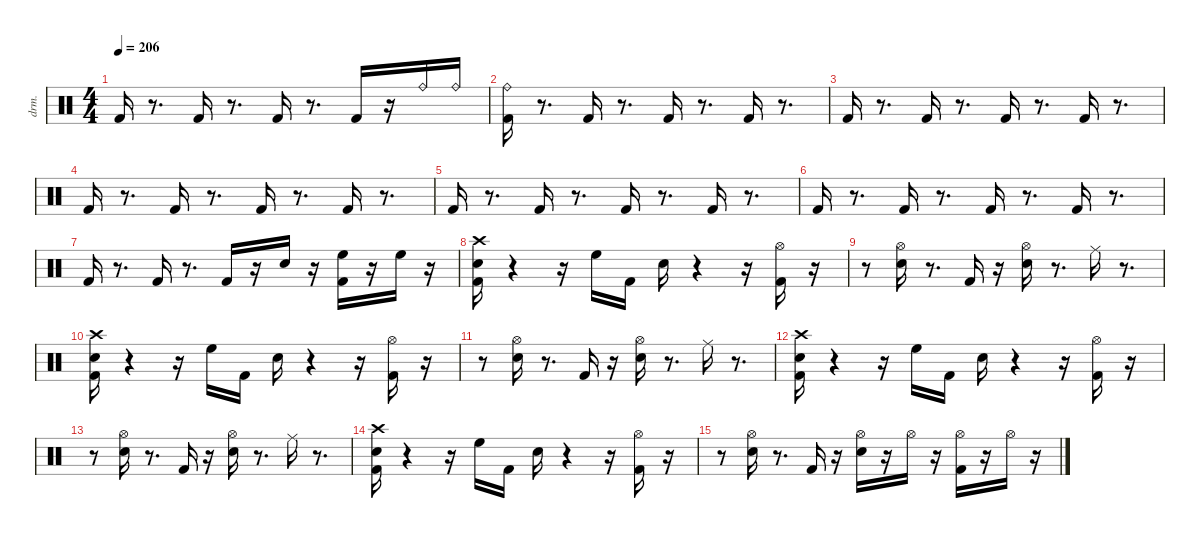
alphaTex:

\defaultSystemsLayout 4
\hideDynamics
\bracketExtendMode nobrackets
\otherSystemsTrackNameOrientation horizontal
\track ("EZdrummer 3" "drm.") {instrument percussion}
\staff {score}
\articulation defaults
\ts (4 4)
\tempo 206
\clef neutral
\ks aminor "Kick (hit) 2".16{dy ff beam Up}
r.8{d beam Up} "Kick (hit) 2".16{dy mp beam Up} r.8{d beam Up} "Kick (hit) 2".16{dy f beam Up} r.8{d beam Up} "Kick (hit) 2".16{dy mf beam Up} r.16{beam Up} "Ride (bell)".16{beam Down} "Ride (bell)".16{dy mp beam Down} |
("Kick (hit) 2" "Ride (bell)").16{dy ff beam Down} r.8{d beam Down} "Kick (hit) 2".16{dy mp beam Up} r.8{d beam Up} "Kick (hit) 2".16{dy f beam Up} r.8{d beam Up} "Kick (hit) 2".16{dy mf beam Up} r.8{d beam Up} |
"Kick (hit) 2".16{dy ff beam Up} r.8{d beam Up} "Kick (hit) 2".16{dy mp beam Up} r.8{d beam Up} "Kick (hit) 2".16{dy f beam Up} r.8{d beam Up} "Kick (hit) 2".16{dy mf beam Up} r.8{d beam Up} |
"Kick (hit) 2".16{dy ff beam Up} r.8{d beam Up} "Kick (hit) 2".16{dy mp beam Up} r.8{d beam Up} "Kick (hit) 2".16{dy f beam Up} r.8{d beam Up} "Kick (hit) 2".16{dy mf beam Up} r.8{d beam Up} |
"Kick (hit) 2".16{dy ff beam Up} r.8{d beam Up} "Kick (hit) 2".16{dy mp beam Up} r.8{d beam Up} "Kick (hit) 2".16{dy f beam Up} r.8{d beam Up} "Kick (hit) 2".16{dy mf beam Up} r.8{d beam Up} |
"Kick (hit) 2".16{dy ff beam Up} r.8{d beam Up} "Kick (hit) 2".16{dy mp beam Up} r.8{d beam Up} "Kick (hit) 2".16{dy f beam Up} r.8{d beam Up} "Kick (hit) 2".16{dy mf beam Up} r.8{d beam Up} |
"Kick (hit) 2".16{dy ff beam Up} r.8{d beam Up} "Kick (hit) 2".16{dy mp beam Up} r.8{d beam Up} "Kick (hit) 2".16{dy f beam Up} r.16{beam Up} "Snare (hit) 2".16{dy ff beam Down} r.16{beam Down} ("Kick (hit) 2" "High Floor Tom (hit)").16{dy mf beam Down} r.16{beam Down} "High Floor Tom (hit)".16{dy pp beam Down} r.16{beam Down} |
("Kick (hit) 2" "Snare (hit) 2" "Crash high (hit)"{acc #}).16{dy fff beam Down} r.4{beam Down} r.16{beam Down} "High Floor Tom (hit)".16{dy f beam Down} "Kick (hit) 2".16{dy ff beam Down} "Snare (hit) 2".16{dy fff beam Down} r.4{beam Down} r.16{beam Down} ("Kick (hit) 2" "Hi-Hat (open)"{acc #}).16{dy ff beam Down} r.16{beam Down} |
r.8{beam Down} ("Snare (hit) 2" "Hi-Hat (open)"{acc #}).16{beam Down} r.8{d beam Down} "Kick (hit) 2".16{beam Up} r.16{beam Up} ("Snare (hit) 2" "Hi-Hat (open)"{acc #}).16{beam Down} r.8{d beam Down} "Ride (middle)"{acc #}.16{beam Down} r.8{d beam Down} |
("Crash high (hit)"{acc #} "Kick (hit) 2" "Snare (hit) 2").16{dy fff beam Down} r.4{beam Down} r.16{beam Down} "High Floor Tom (hit)".16{dy f beam Down} "Kick (hit) 2".16{dy ff beam Down} "Snare (hit) 2".16{beam Down} r.4{beam Down} r.16{beam Down} ("Kick (hit) 2" "Hi-Hat (open)"{acc #}).16{beam Down} r.16{beam Down} |
r.8{beam Down} ("Snare (hit) 2" "Hi-Hat (open)"{acc #}).16{beam Down} r.8{d beam Down} "Kick (hit) 2".16{beam Up} r.16{beam Up} ("Snare (hit) 2" "Hi-Hat (open)"{acc #}).16{beam Down} r.8{d beam Down} "Ride (middle)"{acc #}.16{beam Down} r.8{d beam Down} |
("Kick (hit) 2" "Snare (hit) 2" "Crash high (hit)"{acc #}).16{dy fff beam Down} r.4{beam Down} r.16{beam Down} "High Floor Tom (hit)".16{dy f beam Down} "Kick (hit) 2".16{dy ff beam Down} "Snare (hit) 2".16{beam Down} r.4{beam Down} r.16{beam Down} ("Kick (hit) 2" "Hi-Hat (open)"{acc #}).16{beam Down} r.16{beam Down} |
r.8{beam Down} ("Snare (hit) 2" "Hi-Hat (open)"{acc #}).16{beam Down} r.8{d beam Down} "Kick (hit) 2".16{beam Up} r.16{beam Up} ("Snare (hit) 2" "Hi-Hat (open)"{acc #}).16{beam Down} r.8{d beam Down} "Ride (middle)"{acc #}.16{beam Down} r.8{d beam Down} |
("Kick (hit) 2" "Snare (hit) 2" "Crash high (hit)"{acc #}).16{dy fff beam Down} r.4{beam Down} r.16{beam Down} "High Floor Tom (hit)".16{dy f beam Down} "Kick (hit) 2".16{dy ff beam Down} "Snare (hit) 2".16{beam Down} r.4{beam Down} r.16{beam Down} ("Kick (hit) 2" "Hi-Hat (open)"{acc #}).16{beam Down} r.16{beam Down} |
r.8{beam Down} ("Snare (hit) 2" "Hi-Hat (open)"{acc #}).16{beam Down} r.8{d beam Down} "Kick (hit) 2".16{beam Up} r.16{beam Up} ("Snare (hit) 2" "Hi-Hat (open)"{acc #}).16{beam Down} r.16{beam Down} "Hi-Hat (open)"{acc #}.16{dy mp beam Down} r.16{beam Down} ("Kick (hit) 2" "Hi-Hat (open)"{acc #}).16{dy ff beam Down} r.16{beam Down} "Hi-Hat (open)"{acc #}.16{dy mf beam Down} r.16{beam Down}
